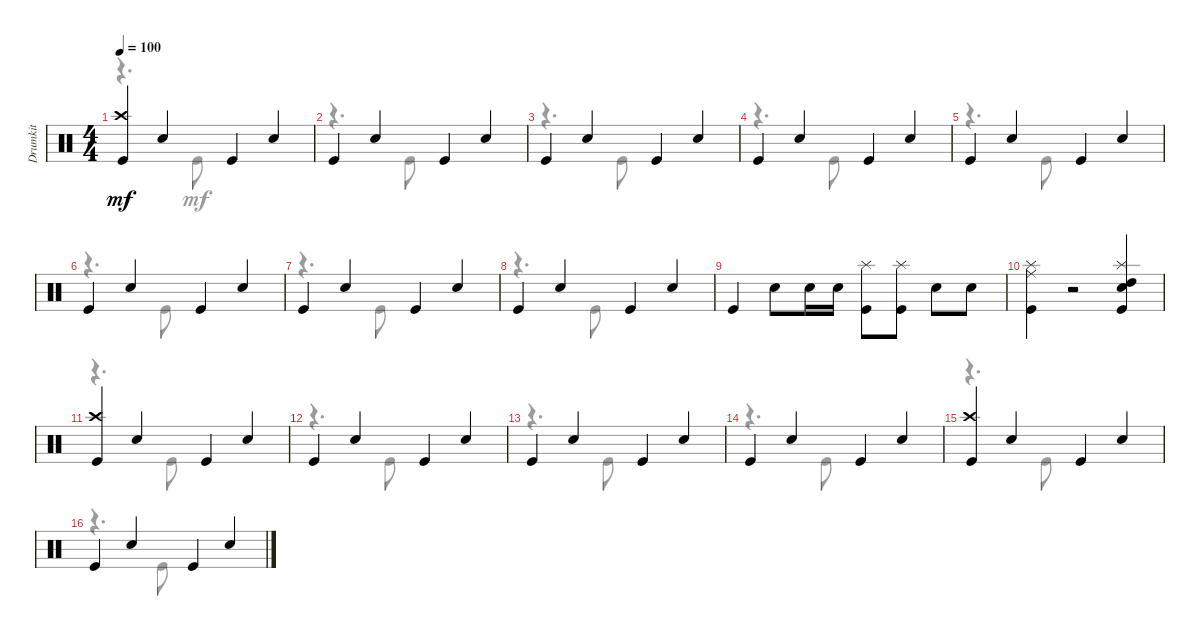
\track ("Drumkit" "Drumkit") {instrument percussion}
\staff {score}
\articulation defaults
\voice
\ts (4 4)
\tempo 100
\clef neutral
\ks aminor
("Crash high (hit)" "Kick (hit)").4{dy mf} "Electric Snare (hit)".4 "Kick (hit)".4 "Electric Snare (hit)".4 |
"Kick (hit)".4 "Electric Snare (hit)".4 "Kick (hit)".4 "Electric Snare (hit)".4 |
"Kick (hit)".4 "Electric Snare (hit)".4 "Kick (hit)".4 "Electric Snare (hit)".4 |
"Kick (hit)".4 "Electric Snare (hit)".4 "Kick (hit)".4 "Electric Snare (hit)".4 |
"Kick (hit)".4 "Electric Snare (hit)".4 "Kick (hit)".4 "Electric Snare (hit)".4 |
"Kick (hit)".4 "Electric Snare (hit)".4 "Kick (hit)".4 "Electric Snare (hit)".4 |
"Kick (hit)".4 "Electric Snare (hit)".4 "Kick (hit)".4 "Electric Snare (hit)".4 |
"Kick (hit)".4 "Electric Snare (hit)".4 "Kick (hit)".4 "Electric Snare (hit)".4 |
"Kick (hit)".4 "Electric Snare (hit)".8 "Electric Snare (hit)".16 "Electric Snare (hit)".16 ("Kick (hit)" "Splash (hit)").8 ("Kick (hit)" "Splash (hit)").8 "Electric Snare (hit)".8 "Electric Snare (hit)".8 |
("Kick (hit)" "Splash (hit)" "Ride (middle)").4 r.2 ("Kick (hit)" "High Tom (hit)" "Splash (hit)" "Electric Snare (hit)").4 |
("Crash high (hit)" "Kick (hit)").4 "Electric Snare (hit)".4 "Kick (hit)".4 "Electric Snare (hit)".4 |
"Kick (hit)".4 "Electric Snare (hit)".4 "Kick (hit)".4 "Electric Snare (hit)".4 |
"Kick (hit)".4 "Electric Snare (hit)".4 "Kick (hit)".4 "Electric Snare (hit)".4 |
"Kick (hit)".4 "Electric Snare (hit)".4 "Kick (hit)".4 "Electric Snare (hit)".4 |
("Kick (hit)" "Crash high (hit)").4 "Electric Snare (hit)".4 "Kick (hit)".4 "Electric Snare (hit)".4 |
"Kick (hit)".4 "Electric Snare (hit)".4 "Kick (hit)".4 "Electric Snare (hit)".4
\voice
\clef neutral
\ottava regular
\simile none
\ks aminor
r.4{d dy mf} "Kick (hit)".8 |
r.4{d} "Kick (hit)".8 |
r.4{d} "Kick (hit)".8 |
r.4{d} "Kick (hit)".8 |
r.4{d} "Kick (hit)".8 |
r.4{d} "Kick (hit)".8 |
r.4{d} "Kick (hit)".8 |
r.4{d} "Kick (hit)".8 |
|
|
r.4{d} "Kick (hit)".8 |
r.4{d} "Kick (hit)".8 |
r.4{d} "Kick (hit)".8 |
r.4{d} "Kick (hit)".8 |
r.4{d} "Kick (hit)".8 |
r.4{d} "Kick (hit)".8
